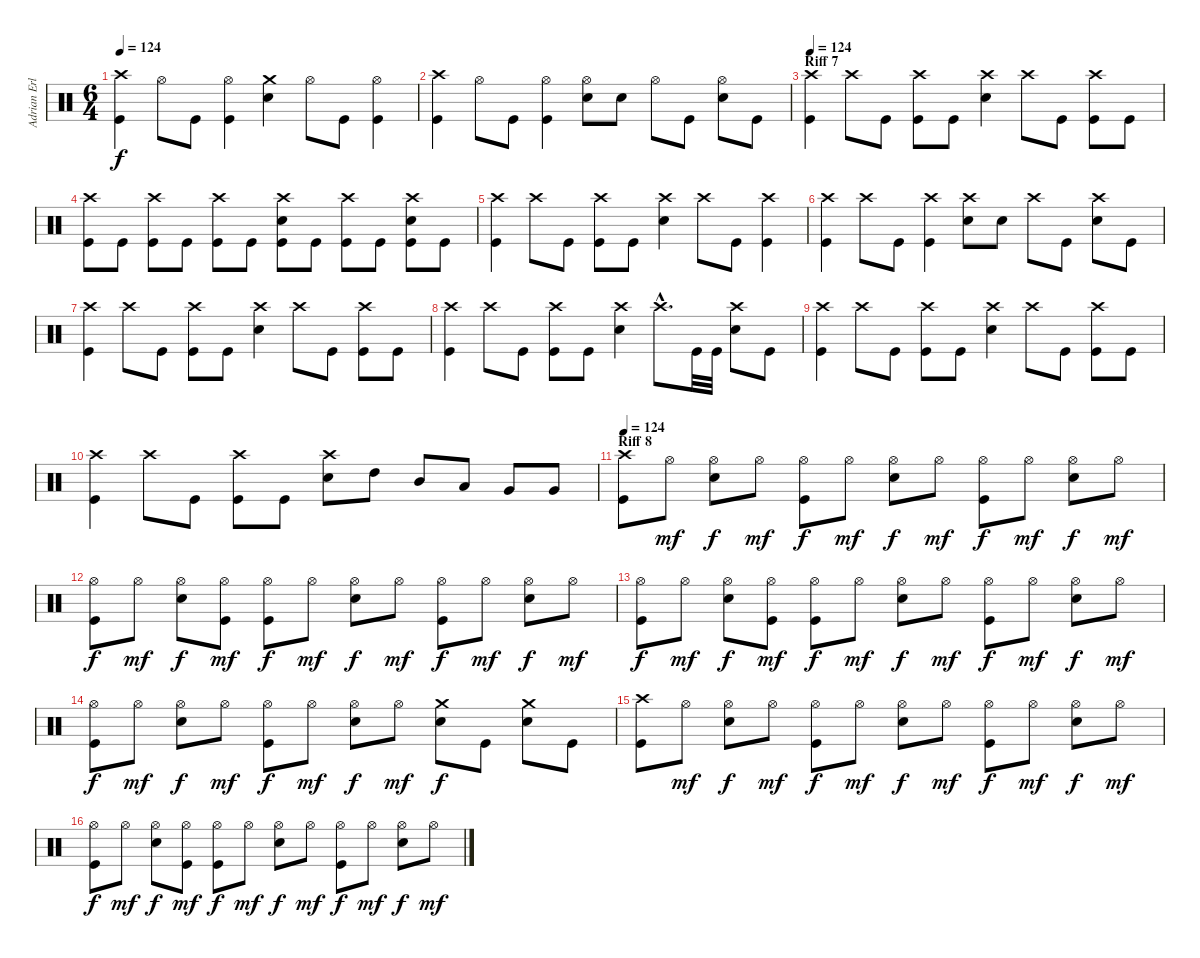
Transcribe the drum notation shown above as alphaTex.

\track ("Adrian Erlandsson (Norseman of the Apoca" "Adrian Erl") {instrument percussion}
\staff {score}
\articulation defaults
\ts (6 4)
\tempo 124
\clef neutral
\ks c
("Crash high (hit)" "Kick (hit)").4{dy f} "Hi-Hat (open)".8 "Kick (hit)".8 ("Hi-Hat (open)" "Kick (hit)").4 ("Crash medium (hit)" "Electric Snare (hit)").4 "Hi-Hat (open)".8 "Kick (hit)".8 ("Hi-Hat (open)" "Kick (hit)").4 |
("Crash high (hit)" "Kick (hit)").4 "Hi-Hat (open)".8 "Kick (hit)".8 ("Hi-Hat (open)" "Kick (hit)").4 ("Hi-Hat (open)" "Electric Snare (hit)").8 "Electric Snare (hit)".8 "Hi-Hat (open)".8 "Kick (hit)".8 ("Hi-Hat (open)" "Electric Snare (hit)").8 "Kick (hit)".8 |
\section ("" "Riff 7")
\tempo 124
("Crash high (hit)" "Kick (hit)").4 "Crash high (hit)".8 "Kick (hit)".8 ("Crash high (hit)" "Kick (hit)").8 "Kick (hit)".8 ("Crash high (hit)" "Electric Snare (hit)").4 "Crash high (hit)".8 "Kick (hit)".8 ("Crash high (hit)" "Kick (hit)").8 "Kick (hit)".8 |
("Crash high (hit)" "Kick (hit)").8 "Kick (hit)".8 ("Crash high (hit)" "Kick (hit)").8 "Kick (hit)".8 ("Crash high (hit)" "Kick (hit)").8 "Kick (hit)".8 ("Crash high (hit)" "Electric Snare (hit)" "Kick (hit)").8 "Kick (hit)".8 ("Crash high (hit)" "Kick (hit)").8 "Kick (hit)".8 ("Crash high (hit)" "Electric Snare (hit)" "Kick (hit)").8 "Kick (hit)".8 |
("Crash high (hit)" "Kick (hit)").4 "Crash high (hit)".8 "Kick (hit)".8 ("Crash high (hit)" "Kick (hit)").8 "Kick (hit)".8 ("Crash high (hit)" "Electric Snare (hit)").4 "Crash high (hit)".8 "Kick (hit)".8 ("Crash high (hit)" "Kick (hit)").4 |
("Crash high (hit)" "Kick (hit)").4 "Crash high (hit)".8 "Kick (hit)".8 ("Crash high (hit)" "Kick (hit)").4 ("Crash high (hit)" "Electric Snare (hit)").8 "Electric Snare (hit)".8 "Crash high (hit)".8 "Kick (hit)".8 ("Crash high (hit)" "Electric Snare (hit)").8 "Kick (hit)".8 |
("Crash high (hit)" "Kick (hit)").4 "Crash high (hit)".8 "Kick (hit)".8 ("Crash high (hit)" "Kick (hit)").8 "Kick (hit)".8 ("Crash high (hit)" "Electric Snare (hit)").4 "Crash high (hit)".8 "Kick (hit)".8 ("Crash high (hit)" "Kick (hit)").8 "Kick (hit)".8 |
("Crash high (hit)" "Kick (hit)").4 "Crash high (hit)".8 "Kick (hit)".8 ("Crash high (hit)" "Kick (hit)").8 "Kick (hit)".8 ("Crash high (hit)" "Electric Snare (hit)").4 "Crash high (hit)"{hac}.8{d} "Kick (hit)".32 "Kick (hit)".32 ("Crash high (hit)" "Electric Snare (hit)").8 "Kick (hit)".8 |
("Crash high (hit)" "Kick (hit)").4 "Crash high (hit)".8 "Kick (hit)".8 ("Crash high (hit)" "Kick (hit)").8 "Kick (hit)".8 ("Crash high (hit)" "Electric Snare (hit)").4 "Crash high (hit)".8 "Kick (hit)".8 ("Crash high (hit)" "Kick (hit)").8 "Kick (hit)".8 |
("Crash high (hit)" "Kick (hit)").4 "Crash high (hit)".8 "Kick (hit)".8 ("Crash high (hit)" "Kick (hit)").8 "Kick (hit)".8 ("Crash high (hit)" "Electric Snare (hit)").8 "High Tom (hit)".8 "Mid Tom (hit)".8 "Low Tom (hit)".8 "Very Low Tom (hit)".8 "Very Low Tom (hit)".8 |
\section ("" "Riff 8")
\tempo 124
("Crash high (hit)" "Kick (hit)").8 "Hi-Hat (open)".8{dy mf} ("Hi-Hat (open)" "Electric Snare (hit)").8{dy f} "Hi-Hat (open)".8{dy mf} ("Hi-Hat (open)" "Kick (hit)").8{dy f} "Hi-Hat (open)".8{dy mf} ("Hi-Hat (open)" "Electric Snare (hit)").8{dy f} "Hi-Hat (open)".8{dy mf} ("Hi-Hat (open)" "Kick (hit)").8{dy f} "Hi-Hat (open)".8{dy mf} ("Hi-Hat (open)" "Electric Snare (hit)").8{dy f} "Hi-Hat (open)".8{dy mf} |
("Hi-Hat (open)" "Kick (hit)").8{dy f} "Hi-Hat (open)".8{dy mf} ("Hi-Hat (open)" "Electric Snare (hit)").8{dy f} ("Hi-Hat (open)" "Kick (hit)").8{dy mf} ("Hi-Hat (open)" "Kick (hit)").8{dy f} "Hi-Hat (open)".8{dy mf} ("Hi-Hat (open)" "Electric Snare (hit)").8{dy f} "Hi-Hat (open)".8{dy mf} ("Hi-Hat (open)" "Kick (hit)").8{dy f} "Hi-Hat (open)".8{dy mf} ("Hi-Hat (open)" "Electric Snare (hit)").8{dy f} "Hi-Hat (open)".8{dy mf} |
("Hi-Hat (open)" "Kick (hit)").8{dy f} "Hi-Hat (open)".8{dy mf} ("Hi-Hat (open)" "Electric Snare (hit)").8{dy f} ("Hi-Hat (open)" "Kick (hit)").8{dy mf} ("Hi-Hat (open)" "Kick (hit)").8{dy f} "Hi-Hat (open)".8{dy mf} ("Hi-Hat (open)" "Electric Snare (hit)").8{dy f} "Hi-Hat (open)".8{dy mf} ("Hi-Hat (open)" "Kick (hit)").8{dy f} "Hi-Hat (open)".8{dy mf} ("Hi-Hat (open)" "Electric Snare (hit)").8{dy f} "Hi-Hat (open)".8{dy mf} |
("Hi-Hat (open)" "Kick (hit)").8{dy f} "Hi-Hat (open)".8{dy mf} ("Hi-Hat (open)" "Electric Snare (hit)").8{dy f} "Hi-Hat (open)".8{dy mf} ("Hi-Hat (open)" "Kick (hit)").8{dy f} "Hi-Hat (open)".8{dy mf} ("Hi-Hat (open)" "Electric Snare (hit)").8{dy f} "Hi-Hat (open)".8{dy mf} ("Crash medium (hit)" "Electric Snare (hit)").8{dy f} "Kick (hit)".8 ("Crash medium (hit)" "Electric Snare (hit)").8 "Kick (hit)".8 |
("Crash high (hit)" "Kick (hit)").8 "Hi-Hat (open)".8{dy mf} ("Hi-Hat (open)" "Electric Snare (hit)").8{dy f} "Hi-Hat (open)".8{dy mf} ("Hi-Hat (open)" "Kick (hit)").8{dy f} "Hi-Hat (open)".8{dy mf} ("Hi-Hat (open)" "Electric Snare (hit)").8{dy f} "Hi-Hat (open)".8{dy mf} ("Hi-Hat (open)" "Kick (hit)").8{dy f} "Hi-Hat (open)".8{dy mf} ("Hi-Hat (open)" "Electric Snare (hit)").8{dy f} "Hi-Hat (open)".8{dy mf} |
("Hi-Hat (open)" "Kick (hit)").8{dy f} "Hi-Hat (open)".8{dy mf} ("Hi-Hat (open)" "Electric Snare (hit)").8{dy f} ("Hi-Hat (open)" "Kick (hit)").8{dy mf} ("Hi-Hat (open)" "Kick (hit)").8{dy f} "Hi-Hat (open)".8{dy mf} ("Hi-Hat (open)" "Electric Snare (hit)").8{dy f} "Hi-Hat (open)".8{dy mf} ("Hi-Hat (open)" "Kick (hit)").8{dy f} "Hi-Hat (open)".8{dy mf} ("Hi-Hat (open)" "Electric Snare (hit)").8{dy f} "Hi-Hat (open)".8{dy mf}
